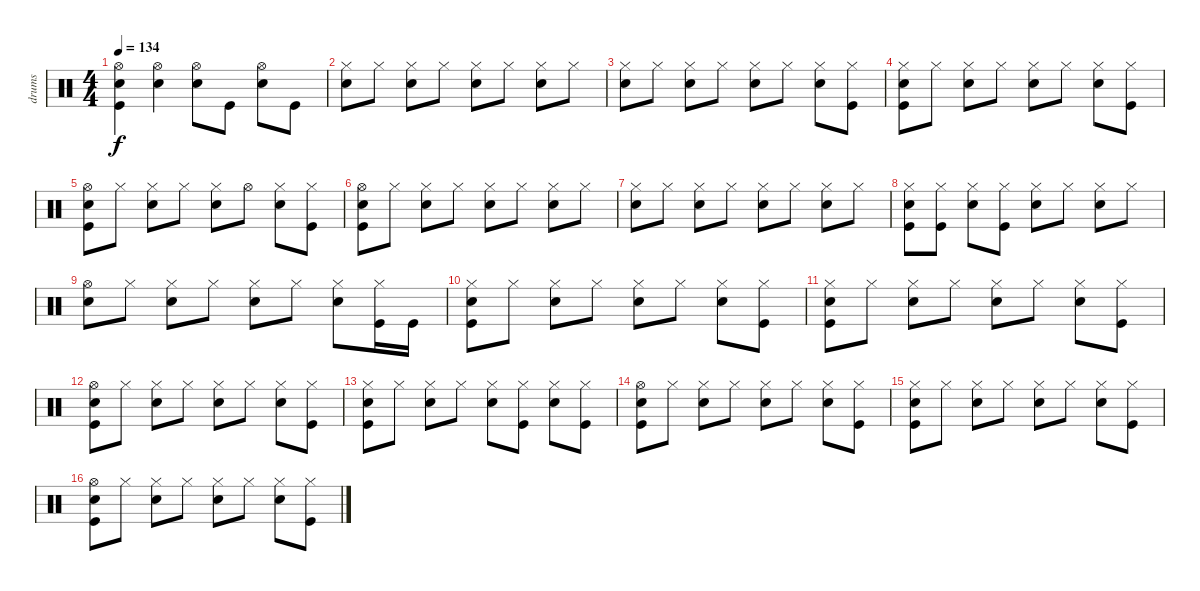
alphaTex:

\track ("drums" "drums") {instrument percussion}
\staff {score}
\articulation defaults
\ts (4 4)
\tempo 134
\clef neutral
\ks c
("Hi-Hat (open)" "Snare (hit) 2" "Kick (hit)").4{dy f} ("Hi-Hat (open)" "Snare (hit) 2").4 ("Hi-Hat (open)" "Snare (hit) 2").8 "Kick (hit)".8 ("Hi-Hat (open)" "Snare (hit) 2").8 "Kick (hit)".8 |
("Hi-Hat (closed)" "Snare (hit) 2").8 "Hi-Hat (closed)".8 ("Hi-Hat (closed)" "Snare (hit) 2").8 "Hi-Hat (closed)".8 ("Hi-Hat (closed)" "Snare (hit) 2").8 "Hi-Hat (closed)".8 ("Hi-Hat (closed)" "Snare (hit) 2").8 "Hi-Hat (closed)".8 |
("Hi-Hat (closed)" "Snare (hit) 2").8 "Hi-Hat (closed)".8 ("Hi-Hat (closed)" "Snare (hit) 2").8 "Hi-Hat (closed)".8 ("Hi-Hat (closed)" "Snare (hit) 2").8 "Hi-Hat (closed)".8 ("Hi-Hat (closed)" "Snare (hit) 2").8 ("Hi-Hat (closed)" "Kick (hit)").8 |
("Hi-Hat (closed)" "Snare (hit) 2" "Kick (hit)").8 "Hi-Hat (closed)".8 ("Hi-Hat (closed)" "Snare (hit) 2").8 "Hi-Hat (closed)".8 ("Hi-Hat (closed)" "Snare (hit) 2").8 "Hi-Hat (closed)".8 ("Hi-Hat (closed)" "Snare (hit) 2").8 ("Hi-Hat (closed)" "Kick (hit)").8 |
("Hi-Hat (open)" "Snare (hit) 2" "Kick (hit)").8 "Hi-Hat (closed)".8 ("Hi-Hat (closed)" "Snare (hit) 2").8 "Hi-Hat (closed)".8 ("Hi-Hat (closed)" "Snare (hit) 2").8 "Hi-Hat (open)".8 ("Hi-Hat (closed)" "Snare (hit) 2").8 ("Hi-Hat (closed)" "Kick (hit)").8 |
("Hi-Hat (open)" "Snare (hit) 2" "Kick (hit)").8 "Hi-Hat (closed)".8 ("Hi-Hat (closed)" "Snare (hit) 2").8 "Hi-Hat (closed)".8 ("Hi-Hat (closed)" "Snare (hit) 2").8 "Hi-Hat (closed)".8 ("Hi-Hat (closed)" "Snare (hit) 2").8 "Hi-Hat (closed)".8 |
("Hi-Hat (closed)" "Snare (hit) 2").8 "Hi-Hat (closed)".8 ("Hi-Hat (closed)" "Snare (hit) 2").8 "Hi-Hat (closed)".8 ("Hi-Hat (closed)" "Snare (hit) 2").8 "Hi-Hat (closed)".8 ("Hi-Hat (closed)" "Snare (hit) 2").8 "Hi-Hat (closed)".8 |
("Hi-Hat (closed)" "Snare (hit) 2" "Kick (hit)").8 ("Hi-Hat (closed)" "Kick (hit)").8 ("Hi-Hat (closed)" "Snare (hit) 2").8 ("Hi-Hat (closed)" "Kick (hit)").8 ("Hi-Hat (closed)" "Snare (hit) 2").8 "Hi-Hat (closed)".8 ("Hi-Hat (closed)" "Snare (hit) 2").8 "Hi-Hat (closed)".8 |
("Hi-Hat (open)" "Snare (hit) 2").8 "Hi-Hat (closed)".8 ("Hi-Hat (closed)" "Snare (hit) 2").8 "Hi-Hat (closed)".8 ("Hi-Hat (closed)" "Snare (hit) 2").8 "Hi-Hat (closed)".8 ("Hi-Hat (closed)" "Snare (hit) 2").8 ("Hi-Hat (closed)" "Kick (hit)").16 "Kick (hit)".16 |
("Hi-Hat (closed)" "Snare (hit) 2" "Kick (hit)").8 "Hi-Hat (closed)".8 ("Hi-Hat (closed)" "Snare (hit) 2").8 "Hi-Hat (closed)".8 ("Hi-Hat (closed)" "Snare (hit) 2").8 "Hi-Hat (closed)".8 ("Hi-Hat (closed)" "Snare (hit) 2").8 ("Hi-Hat (closed)" "Kick (hit)").8 |
("Hi-Hat (closed)" "Snare (hit) 2" "Kick (hit)").8 "Hi-Hat (closed)".8 ("Hi-Hat (closed)" "Snare (hit) 2").8 "Hi-Hat (closed)".8 ("Hi-Hat (closed)" "Snare (hit) 2").8 "Hi-Hat (closed)".8 ("Hi-Hat (closed)" "Snare (hit) 2").8 ("Hi-Hat (closed)" "Kick (hit)").8 |
("Hi-Hat (open)" "Snare (hit) 2" "Kick (hit)").8 "Hi-Hat (closed)".8 ("Hi-Hat (closed)" "Snare (hit) 2").8 "Hi-Hat (closed)".8 ("Hi-Hat (closed)" "Snare (hit) 2").8 "Hi-Hat (closed)".8 ("Hi-Hat (closed)" "Snare (hit) 2").8 ("Hi-Hat (closed)" "Kick (hit)").8 |
("Hi-Hat (closed)" "Snare (hit) 2" "Kick (hit)").8 "Hi-Hat (closed)".8 ("Hi-Hat (closed)" "Snare (hit) 2").8 "Hi-Hat (closed)".8 ("Hi-Hat (closed)" "Snare (hit) 2").8 ("Hi-Hat (closed)" "Kick (hit)").8 ("Hi-Hat (closed)" "Snare (hit) 2").8 ("Hi-Hat (closed)" "Kick (hit)").8 |
("Hi-Hat (open)" "Snare (hit) 2" "Kick (hit)").8 "Hi-Hat (closed)".8 ("Hi-Hat (closed)" "Snare (hit) 2").8 "Hi-Hat (closed)".8 ("Hi-Hat (closed)" "Snare (hit) 2").8 "Hi-Hat (closed)".8 ("Hi-Hat (closed)" "Snare (hit) 2").8 ("Hi-Hat (closed)" "Kick (hit)").8 |
("Hi-Hat (closed)" "Snare (hit) 2" "Kick (hit)").8 "Hi-Hat (closed)".8 ("Hi-Hat (closed)" "Snare (hit) 2").8 "Hi-Hat (closed)".8 ("Hi-Hat (closed)" "Snare (hit) 2").8 "Hi-Hat (closed)".8 ("Hi-Hat (closed)" "Snare (hit) 2").8 ("Hi-Hat (closed)" "Kick (hit)").8 |
("Hi-Hat (open)" "Snare (hit) 2" "Kick (hit)").8 "Hi-Hat (closed)".8 ("Hi-Hat (closed)" "Snare (hit) 2").8 "Hi-Hat (closed)".8 ("Hi-Hat (closed)" "Snare (hit) 2").8 "Hi-Hat (closed)".8 ("Hi-Hat (closed)" "Snare (hit) 2").8 ("Hi-Hat (closed)" "Kick (hit)").8
